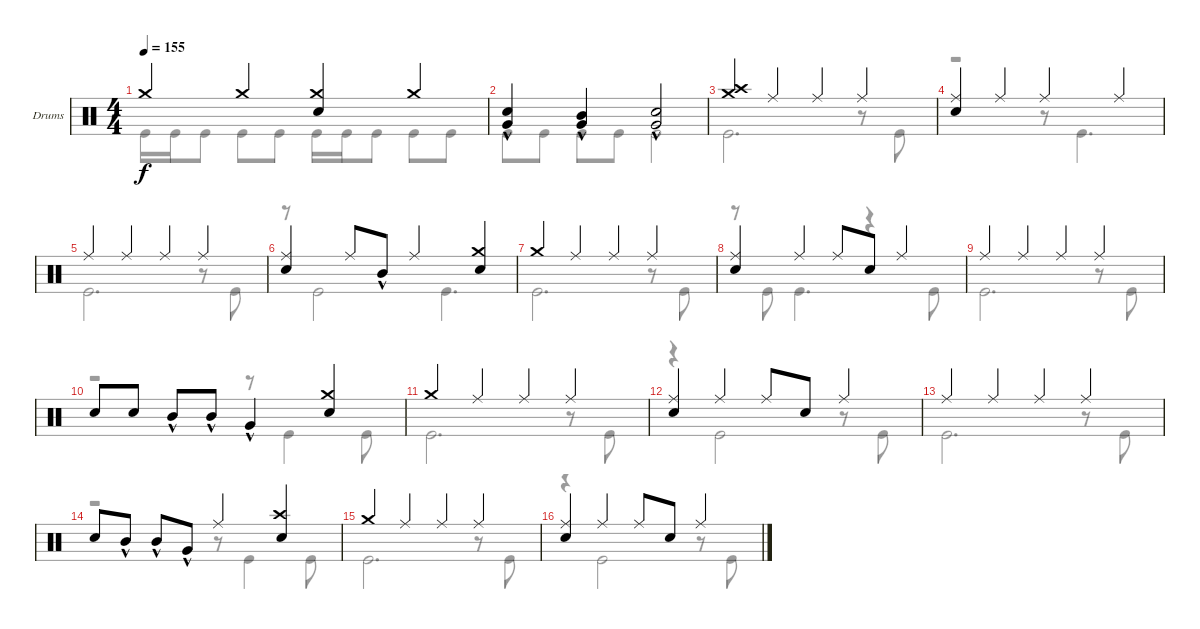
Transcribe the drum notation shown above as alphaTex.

\defaultSystemsLayout 4
\bracketExtendMode groupsimilarinstruments
\firstSystemTrackNameOrientation horizontal
\otherSystemsTrackNameOrientation horizontal
\track ("Drumkit" "Drums") {instrument percussion}
\staff {score}
\articulation defaults
\voice
\ts (4 4)
\tempo 155
\clef neutral
\scale
1.02648
\ks c "Crash medium (hit)".4{dy f} "Crash medium (hit)".4
("Crash medium (hit)" "Snare (hit) 2").4 "Crash medium (hit)".4 |
\scale
0.973518 ("Snare (hit) 2" "Very Low Tom (hit)"{hac}).4 ("Very Low Tom (hit)"{hac} "Mid Tom (hit)"{hac}).4 ("Very Low Tom (hit)"{hac} "Snare (hit) 2").2 |
\scale
1.02648 ("Crash medium (hit)" "Crash high (hit)").4 "Ride (middle)".4 "Ride (middle)".4 "Ride (middle)".4 |
\scale
0.973518 ("Ride (middle)" "Snare (hit) 2").4 "Ride (middle)".4 "Ride (middle)".4 "Ride (middle)".4 |
\scale
1.02648 "Ride (middle)".4 "Ride (middle)".4 "Ride (middle)".4 "Ride (middle)".4 |
\scale
0.973518 ("Ride (middle)" "Snare (hit) 2").4 "Ride (middle)".8 "Mid Tom (hit)"{hac}.8 "Ride (middle)".4 ("Crash medium (hit)" "Snare (hit) 2").4 |
\scale
1.02648 "Crash medium (hit)".4 "Ride (middle)".4 "Ride (middle)".4 "Ride (middle)".4 |
\scale
0.973518 ("Ride (middle)" "Snare (hit) 2").4 "Ride (middle)".4 "Ride (middle)".8 "Snare (hit) 2".8 "Ride (middle)".4 |
\scale
1.02648 "Ride (middle)".4 "Ride (middle)".4 "Ride (middle)".4 "Ride (middle)".4 |
\scale
0.973518 "Snare (hit) 2".8 "Snare (hit) 2".8 "Mid Tom (hit)"{hac}.8 "Mid Tom (hit)"{hac}.8 "Very Low Tom (hit)"{hac}.4 ("Snare (hit) 2" "Crash medium (hit)").4 |
\scale
1.02648 "Crash medium (hit)".4 "Ride (middle)".4 "Ride (middle)".4 "Ride (middle)".4 |
\scale
0.973518 ("Ride (middle)" "Snare (hit) 2").4 "Ride (middle)".4 "Ride (middle)".8 "Snare (hit) 2".8 "Ride (middle)".4 |
\scale
1.02648 "Ride (middle)".4 "Ride (middle)".4 "Ride (middle)".4 "Ride (middle)".4 |
\scale
0.973518 "Snare (hit) 2".8 "Mid Tom (hit)"{hac}.8 "Mid Tom (hit)"{hac}.8 "Very Low Tom (hit)"{hac}.8 "Ride (middle)".4 ("Snare (hit) 2" "Crash high (hit)").4 |
\scale
1.02648 "Crash medium (hit)".4 "Ride (middle)".4 "Ride (middle)".4 "Ride (middle)".4 |
\scale
0.973518 ("Ride (middle)" "Snare (hit) 2").4 "Ride (middle)".4 "Ride (middle)".8 "Snare (hit) 2".8 "Ride (middle)".4
\voice
\clef neutral
\ottava regular
\simile none
\scale
1.02648
\ks c "Kick (hit)".16{dy f} "Kick (hit)".16 "Kick (hit)".8 "Kick (hit)".8 "Kick (hit)".8 "Kick (hit)".16 "Kick (hit)".16 "Kick (hit)".8 "Kick (hit)".8 "Kick (hit)".8
|
\scale
0.973518 "Kick (hit)".8 "Kick (hit)".8 "Kick (hit)".8 "Kick (hit)".8 "Kick (hit)".2 |
\scale
1.02648 "Kick (hit)".2{d} r.8 "Kick (hit)".8 |
\scale
0.973518 r.2 r.8 "Kick (hit)".4{d} |
\scale
1.02648 "Kick (hit)".2{d} r.8 "Kick (hit)".8 |
\scale
0.973518 r.8 "Kick (hit)".2 "Kick (hit)".4{d} |
\scale
1.02648 "Kick (hit)".2{d} r.8 "Kick (hit)".8 |
\scale
0.973518 r.8 "Kick (hit)".8 "Kick (hit)".4{d} r.4 "Kick (hit)".8 |
\scale
1.02648 "Kick (hit)".2{d} r.8 "Kick (hit)".8 |
\scale
0.973518 r.2 r.8 "Kick (hit)".4 "Kick (hit)".8 |
\scale
1.02648 "Kick (hit)".2{d} r.8 "Kick (hit)".8 |
\scale
0.973518 r.4 "Kick (hit)".2 r.8 "Kick (hit)".8 |
\scale
1.02648 "Kick (hit)".2{d} r.8 "Kick (hit)".8 |
\scale
0.973518 r.2 r.8 "Kick (hit)".4 "Kick (hit)".8 |
\scale
1.02648 "Kick (hit)".2{d} r.8 "Kick (hit)".8 |
\scale
0.973518 r.4 "Kick (hit)".2 r.8 "Kick (hit)".8
